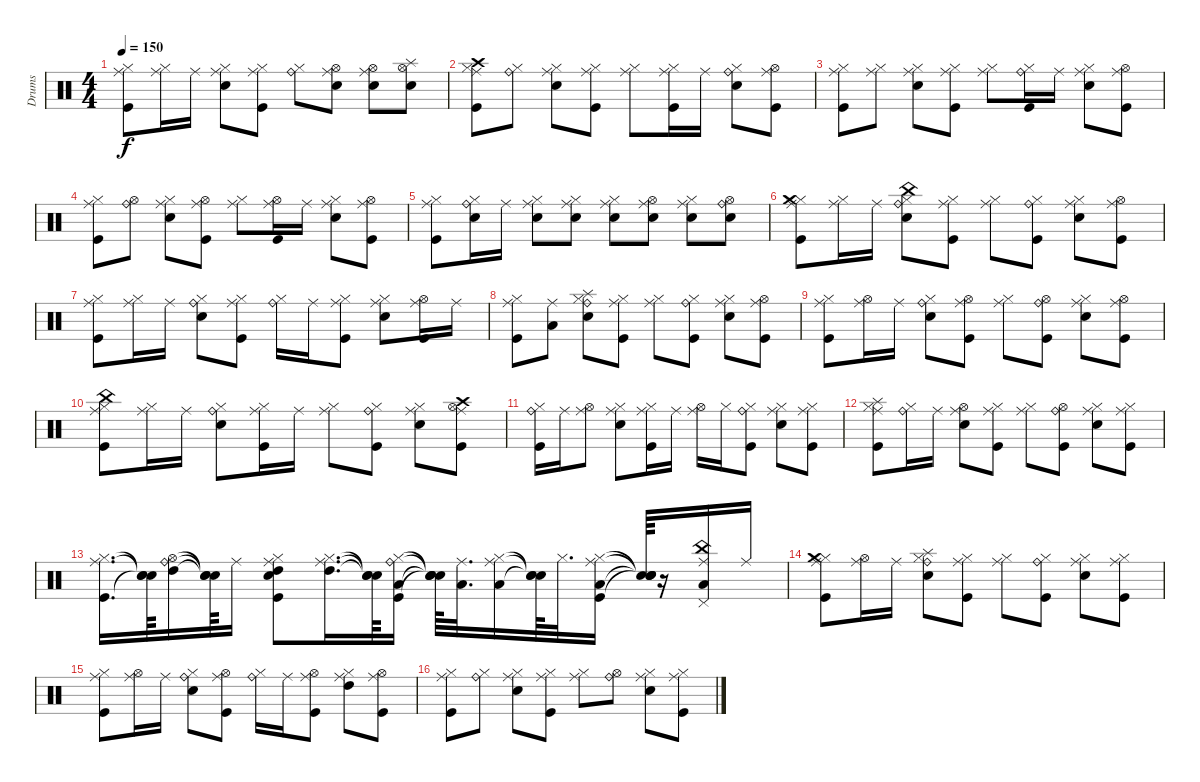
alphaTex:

\track ("Drums" "Drums") {instrument percussion}
\staff {score}
\articulation defaults
\ts (4 4)
\tempo 150
\clef neutral
\ks c
("Hi-Hat (closed)" "Ride (middle)" "Kick (hit)").8{dy f} ("Hi-Hat (closed)" "Ride (middle)").16 "Ride (middle)".16 ("Ride (middle)" "Snare (hit) 2" "Hi-Hat (closed)").8 ("Kick (hit)" "Hi-Hat (closed)" "Ride (middle)").8 ("Hi-Hat (closed)" "Ride (bell)").8 ("Hi-Hat (open)" "Ride (middle)" "Snare (hit) 2").8 ("Ride (middle)" "Snare (hit) 2" "Hi-Hat (open)").8 ("Snare (hit) 2" "Hi-Hat (open)" "Splash (hit)").8 |
("Kick (hit)" "Hi-Hat (closed)" "Crash high (hit)" "Ride (middle)").8 ("Hi-Hat (closed)" "Ride (bell)").8 ("Snare (hit) 2" "Hi-Hat (closed)" "Ride (middle)").8 ("Hi-Hat (closed)" "Ride (middle)" "Kick (hit)").8 ("Hi-Hat (closed)" "Ride (middle)").8 ("Ride (middle)" "Kick (hit)" "Hi-Hat (closed)").16 "Ride (middle)".16 ("Snare (hit) 2" "Hi-Hat (closed)" "Ride (bell)").8 ("Hi-Hat (open)" "Ride (middle)" "Kick (hit)").8 |
("Kick (hit)" "Hi-Hat (closed)" "Ride (middle)").8 ("Hi-Hat (closed)" "Ride (middle)").8 ("Snare (hit) 2" "Hi-Hat (closed)" "Ride (middle)").8 ("Ride (middle)" "Kick (hit)" "Hi-Hat (closed)").8 ("Hi-Hat (closed)" "Ride (middle)").8 ("Kick (hit)" "Hi-Hat (closed)" "Ride (bell)").16 "Ride (middle)".16 ("Snare (hit) 2" "Hi-Hat (closed)" "Ride (middle)").8 ("Kick (hit)" "Hi-Hat (open)" "Ride (middle)").8 |
("Kick (hit)" "Hi-Hat (closed)" "Ride (middle)").8 ("Hi-Hat (open)" "Ride (bell)").8 ("Snare (hit) 2" "Hi-Hat (closed)" "Ride (middle)").8 ("Kick (hit)" "Hi-Hat (open)" "Ride (middle)").8 ("Hi-Hat (closed)" "Ride (middle)").8 ("Kick (hit)" "Hi-Hat (open)" "Ride (middle)").16 "Ride (middle)".16 ("Snare (hit) 2" "Hi-Hat (closed)" "Ride (middle)").8 ("Kick (hit)" "Hi-Hat (open)" "Ride (middle)").8 |
("Kick (hit)" "Hi-Hat (closed)" "Ride (middle)").8 ("Snare (hit) 2" "Hi-Hat (closed)" "Ride (bell)").16 "Ride (middle)".16 ("Ride (middle)" "Snare (hit) 2" "Hi-Hat (closed)").8 ("Snare (hit) 2" "Hi-Hat (closed)" "Ride (middle)").8 ("Snare (hit) 2" "Hi-Hat (closed)" "Ride (middle)").8 ("Snare (hit) 2" "Hi-Hat (open)" "Ride (middle)").8 ("Snare (hit) 2" "Hi-Hat (closed)" "Ride (middle)").8 ("Snare (hit) 2" "Hi-Hat (open)" "Ride (bell)").8 |
("Kick (hit)" "Hi-Hat (closed)" "Ride (middle)" "Crash medium (hit)").8 ("Hi-Hat (closed)" "Ride (middle)").16 "Ride (middle)".16 ("Hi-Hat (closed)" "China (hit)" "Snare (hit) 2" "Ride (bell)").8 ("Ride (middle)" "Kick (hit)" "Hi-Hat (closed)").8 ("Hi-Hat (closed)" "Ride (middle)").8 ("Kick (hit)" "Hi-Hat (closed)" "Ride (bell)").8 ("Snare (hit) 2" "Hi-Hat (closed)" "Ride (middle)").8 ("Kick (hit)" "Hi-Hat (open)" "Ride (middle)").8 |
("Kick (hit)" "Hi-Hat (closed)" "Ride (middle)").8 ("Hi-Hat (closed)" "Ride (middle)").16 "Ride (middle)".16 ("Snare (hit) 2" "Hi-Hat (closed)" "Ride (bell)").8 ("Kick (hit)" "Hi-Hat (closed)" "Ride (middle)").8 ("Hi-Hat (closed)" "Ride (bell)").16 "Ride (middle)".16 ("Kick (hit)" "Hi-Hat (closed)" "Ride (middle)").8 ("Snare (hit) 2" "Hi-Hat (closed)" "Ride (middle)").8 ("Ride (middle)" "Kick (hit)" "Hi-Hat (open)").16 "Ride (middle)".16 |
("Kick (hit)" "Hi-Hat (closed)" "Ride (middle)").8 ("Low Floor Tom (hit)" "Ride (middle)").8 ("Snare (hit) 2" "Hi-Hat (closed)" "Ride (bell)" "Splash (hit)").8 ("Kick (hit)" "Hi-Hat (closed)" "Ride (middle)").8 ("Hi-Hat (closed)" "Ride (middle)").8 ("Kick (hit)" "Hi-Hat (closed)" "Ride (bell)").8 ("Ride (middle)" "Snare (hit) 2" "Hi-Hat (closed)").8 ("Kick (hit)" "Hi-Hat (open)" "Ride (middle)").8 |
("Kick (hit)" "Hi-Hat (closed)" "Ride (middle)").8 ("Hi-Hat (open)" "Ride (middle)").16 "Ride (middle)".16 ("Hi-Hat (closed)" "Ride (bell)" "Snare (hit) 2").8 ("Kick (hit)" "Hi-Hat (open)" "Ride (middle)").8 ("Hi-Hat (closed)" "Ride (middle)").8 ("Kick (hit)" "Hi-Hat (open)" "Ride (bell)").8 ("Ride (middle)" "Snare (hit) 2" "Hi-Hat (closed)").8 ("Kick (hit)" "Hi-Hat (open)" "Ride (middle)").8 |
("Hi-Hat (closed)" "Ride (middle)" "Kick (hit)" "China (hit)").8 ("Hi-Hat (closed)" "Ride (middle)").16 "Ride (middle)".16 ("Snare (hit) 2" "Hi-Hat (closed)" "Ride (bell)").8 ("Kick (hit)" "Hi-Hat (closed)" "Ride (middle)").16 "Ride (middle)".16 ("Hi-Hat (closed)" "Ride (middle)").8 ("Hi-Hat (closed)" "Ride (bell)" "Kick (hit)").8 ("Snare (hit) 2" "Hi-Hat (closed)" "Ride (middle)").8 ("Ride (middle)" "Hi-Hat (open)" "Kick (hit)" "Crash high (hit)").8 |
("Hi-Hat (closed)" "Ride (bell)" "Kick (hit)").16 "Ride (middle)".16 ("Hi-Hat (open)" "Ride (middle)").8 ("Snare (hit) 2" "Hi-Hat (closed)" "Ride (middle)").8 ("Kick (hit)" "Hi-Hat (closed)" "Ride (middle)").16 "Ride (middle)".16 ("Hi-Hat (open)" "Ride (middle)").16 "Hi-Hat (closed)".16 ("Hi-Hat (closed)" "Ride (bell)" "Kick (hit)").8 ("Snare (hit) 2" "Hi-Hat (closed)" "Ride (middle)").8 ("Kick (hit)" "Hi-Hat (closed)" "Ride (middle)").8 |
("Ride (middle)" "Splash (hit)" "Kick (hit)" "Hi-Hat (closed)").8 ("Hi-Hat (closed)" "Ride (bell)").16 "Ride (middle)".16 ("Snare (hit) 2" "Hi-Hat (open)" "Ride (middle)").8 ("Hi-Hat (closed)" "Ride (middle)" "Kick (hit)").8 ("Hi-Hat (closed)" "Ride (middle)").8 ("Kick (hit)" "Hi-Hat (open)" "Ride (bell)").8 ("Hi-Hat (closed)" "Ride (middle)" "Snare (hit) 2").8 ("Ride (middle)" "Kick (hit)" "Hi-Hat (closed)").8 |
("Kick (hit)" "Hi-Hat (closed)" "Ride (middle)").16{d} ("Snare (hit)"{t} "Snare (hit)"{t} "Snare (hit)"{t}).64 ("High Tom (hit)" "Ride (bell)" "Hi-Hat (open)").16 ("Snare (hit)"{t} "Snare (hit)"{t} "Snare (hit)"{t}).64 "Ride (middle)".16 ("Kick (hit)" "Snare (hit) 2" "Hi-Hat (closed)" "High Tom (hit)" "Ride (middle)").8 ("Hi-Hat (closed)" "High Tom (hit)" "Ride (middle)").16{d} ("Snare (hit)"{t} "Snare (hit)"{t} "Snare (hit)"{t}).64 ("Kick (hit)" "Hi-Hat (closed)" "Low Tom (hit)" "Ride (bell)").16 ("Snare (hit)"{t} "Snare (hit)"{t} "Snare (hit)"{t} "Snare (hit)"{t}).64 ("Low Tom (hit)" "Ride (middle)").32{d} ("Low Tom (hit)" "Ride (middle)" "Hi-Hat (closed)").16 ("Snare (hit)"{t} "Snare (hit)"{t} "Snare (hit)"{t}).64 "Hi-Hat (closed)".32{d} ("Kick (hit)" "Low Floor Tom (hit)" "Hi-Hat (closed)" "Ride (middle)").16 ("Snare (hit)"{t} "Snare (hit)"{t} "Snare (hit)"{t} "Snare (hit)"{t}).64 r.16 ("Ride (middle)" "Pedal Hi-Hat (hit)" "China (hit)" "Low Floor Tom (hit)").16 "Ride (middle)".16 |
("Kick (hit)" "Hi-Hat (closed)" "Ride (middle)" "Crash medium (hit)").8 ("Hi-Hat (open)" "Ride (middle)").16 "Ride (middle)".16 ("Snare (hit) 2" "Hi-Hat (closed)" "Ride (bell)" "Splash (hit)").8 ("Kick (hit)" "Hi-Hat (closed)" "Ride (middle)").8 ("Hi-Hat (closed)" "Ride (middle)").8 ("Ride (bell)" "Kick (hit)" "Hi-Hat (closed)").8 ("Snare (hit) 2" "Hi-Hat (closed)" "Ride (middle)").8 ("Kick (hit)" "Hi-Hat (closed)" "Ride (middle)").8 |
("Kick (hit)" "Hi-Hat (closed)" "Ride (middle)").8 ("Hi-Hat (open)" "Ride (middle)").16 "Ride (middle)".16 ("Snare (hit) 2" "Hi-Hat (closed)" "Ride (bell)").8 ("Hi-Hat (open)" "Ride (middle)" "Kick (hit)").8 ("Hi-Hat (closed)" "Ride (bell)").16 "Ride (middle)".16 ("Ride (middle)" "Kick (hit)" "Hi-Hat (open)").8 ("Hi-Hat (closed)" "Ride (middle)" "High Tom (hit)").8 ("Ride (middle)" "Kick (hit)" "Hi-Hat (open)").8 |
("Kick (hit)" "Hi-Hat (closed)" "Ride (middle)").8 ("Hi-Hat (closed)" "Ride (bell)").8 ("Ride (middle)" "Snare (hit) 2" "Hi-Hat (closed)").8 ("Hi-Hat (closed)" "Ride (middle)" "Kick (hit)").8 ("Hi-Hat (closed)" "Ride (middle)").8 ("Hi-Hat (open)" "Ride (bell)").8 ("Hi-Hat (closed)" "Ride (middle)" "Snare (hit) 2").8 ("Kick (hit)" "Hi-Hat (closed)" "Ride (middle)").8
